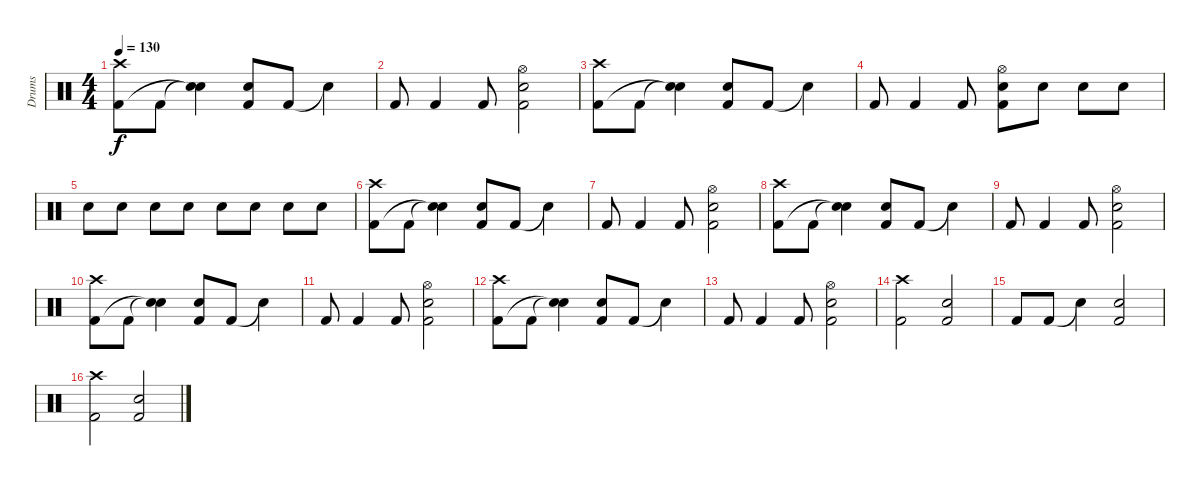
\track ("Drums" "Drums") {instrument percussion}
\staff {score}
\articulation defaults
\ts (4 4)
\tempo 130
\clef neutral
\ks c
("Crash high (hit)" "Kick (hit) 2").8{dy f} "Kick (hit) 2".8 ("Snare (hit)"{t} "Snare (hit)"{t}).4 ("Electric Snare (hit)" "Kick (hit) 2").8 "Kick (hit) 2".8 "Snare (hit)"{t}.4 |
"Kick (hit) 2".8 "Kick (hit) 2".4 "Kick (hit) 2".8 ("Hi-Hat (open)" "Electric Snare (hit)" "Kick (hit) 2").2 |
("Crash high (hit)" "Kick (hit) 2").8 "Kick (hit) 2".8 ("Snare (hit)"{t} "Snare (hit)"{t}).4 ("Electric Snare (hit)" "Kick (hit) 2").8 "Kick (hit) 2".8 "Snare (hit)"{t}.4 |
"Kick (hit) 2".8 "Kick (hit) 2".4 "Kick (hit) 2".8 ("Hi-Hat (open)" "Snare (hit) 2" "Kick (hit) 2").8{volume 10} "Snare (hit) 2".8{volume 16} "Snare (hit) 2".8 "Snare (hit) 2".8 |
"Snare (hit) 2".8 "Snare (hit) 2".8 "Snare (hit) 2".8 "Snare (hit) 2".8 "Snare (hit) 2".8 "Snare (hit) 2".8 "Snare (hit) 2".8 "Snare (hit) 2".8 |
("Crash high (hit)" "Kick (hit) 2").8 "Kick (hit) 2".8 ("Snare (hit)"{t} "Snare (hit)"{t}).4 ("Electric Snare (hit)" "Kick (hit) 2").8 "Kick (hit) 2".8 "Snare (hit)"{t}.4 |
"Kick (hit) 2".8 "Kick (hit) 2".4 "Kick (hit) 2".8 ("Hi-Hat (open)" "Electric Snare (hit)" "Kick (hit) 2").2 |
("Crash high (hit)" "Kick (hit) 2").8 "Kick (hit) 2".8 ("Snare (hit)"{t} "Snare (hit)"{t}).4 ("Electric Snare (hit)" "Kick (hit) 2").8 "Kick (hit) 2".8 "Snare (hit)"{t}.4 |
"Kick (hit) 2".8 "Kick (hit) 2".4 "Kick (hit) 2".8 ("Hi-Hat (open)" "Electric Snare (hit)" "Kick (hit) 2").2 |
("Crash high (hit)" "Kick (hit) 2").8 "Kick (hit) 2".8 ("Snare (hit)"{t} "Snare (hit)"{t}).4 ("Electric Snare (hit)" "Kick (hit) 2").8 "Kick (hit) 2".8 "Snare (hit)"{t}.4 |
"Kick (hit) 2".8 "Kick (hit) 2".4 "Kick (hit) 2".8 ("Hi-Hat (open)" "Electric Snare (hit)" "Kick (hit) 2").2 |
("Crash high (hit)" "Kick (hit) 2").8 "Kick (hit) 2".8 ("Snare (hit)"{t} "Snare (hit)"{t}).4 ("Electric Snare (hit)" "Kick (hit) 2").8 "Kick (hit) 2".8 "Snare (hit)"{t}.4 |
"Kick (hit) 2".8 "Kick (hit) 2".4 "Kick (hit) 2".8 ("Hi-Hat (open)" "Electric Snare (hit)" "Kick (hit) 2").2 |
("Crash high (hit)" "Kick (hit) 2").2 ("Electric Snare (hit)" "Kick (hit) 2").2 |
"Kick (hit) 2".8 "Kick (hit) 2".8 "Snare (hit)"{t}.4 ("Electric Snare (hit)" "Kick (hit) 2").2 |
("Crash high (hit)" "Kick (hit) 2").2 ("Electric Snare (hit)" "Kick (hit) 2").2
